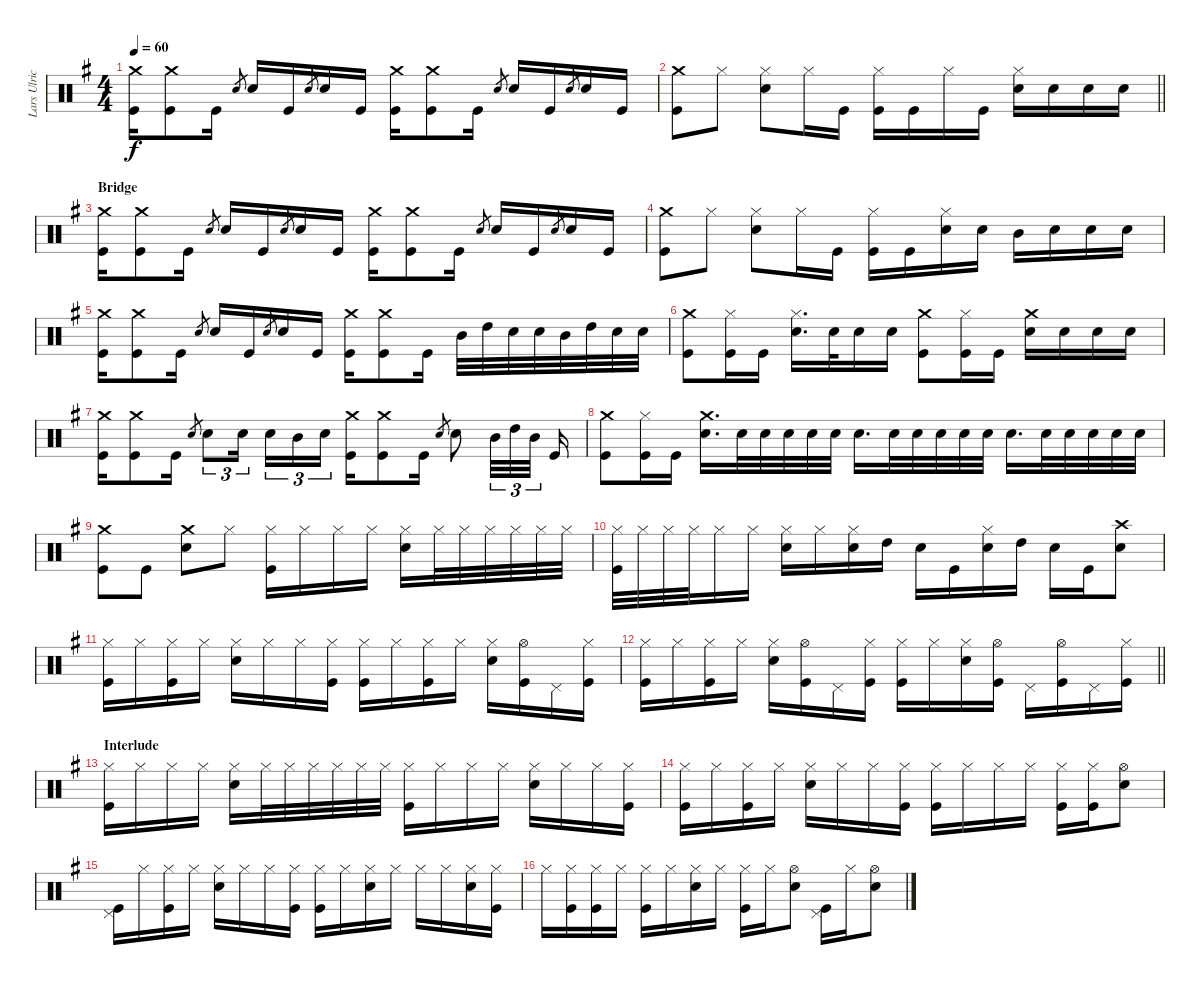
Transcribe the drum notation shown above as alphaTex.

\track ("Lars Ulrich [Drums]" "Lars Ulric") {instrument percussion}
\staff {score}
\articulation defaults
\ts (4 4)
\tempo 60
\clef neutral
\ks g
("Kick (hit)" "Crash medium (hit)").16{dy f} ("Kick (hit)" "Crash medium (hit)").8 "Kick (hit)".16 "Electric Snare (hit)".8{gr} "Electric Snare (hit)".16 "Kick (hit)".16 "Electric Snare (hit)".8{gr} "Electric Snare (hit)".16 "Kick (hit)".16 ("Kick (hit)" "Crash medium (hit)").16 ("Kick (hit)" "Crash medium (hit)").8 "Kick (hit)".16 "Electric Snare (hit)".8{gr} "Electric Snare (hit)".16 "Kick (hit)".16 "Electric Snare (hit)".8{gr} "Electric Snare (hit)".16 "Kick (hit)".16 |
\barLineRight lightlight
("Kick (hit)" "Crash medium (hit)").8 "Hi-Hat (closed)".8 ("Electric Snare (hit)" "Hi-Hat (closed)").8 "Hi-Hat (closed)".16 "Kick (hit)".16 ("Kick (hit)" "Hi-Hat (closed)").16 "Kick (hit)".16 "Hi-Hat (closed)".16 "Kick (hit)".16 ("Electric Snare (hit)" "Hi-Hat (closed)").16 "Electric Snare (hit)".16 "Electric Snare (hit)".16 "Electric Snare (hit)".16 |
\section ("" "Bridge")
("Kick (hit)" "Crash medium (hit)").16 ("Kick (hit)" "Crash medium (hit)").8 "Kick (hit)".16 "Electric Snare (hit)".8{gr} "Electric Snare (hit)".16 "Kick (hit)".16 "Electric Snare (hit)".8{gr} "Electric Snare (hit)".16 "Kick (hit)".16 ("Kick (hit)" "Crash medium (hit)").16 ("Kick (hit)" "Crash medium (hit)").8 "Kick (hit)".16 "Electric Snare (hit)".8{gr} "Electric Snare (hit)".16 "Kick (hit)".16 "Electric Snare (hit)".8{gr} "Electric Snare (hit)".16 "Kick (hit)".16 |
("Kick (hit)" "Crash medium (hit)").8 "Hi-Hat (closed)".8 ("Electric Snare (hit)" "Hi-Hat (closed)").8 "Hi-Hat (closed)".16 "Kick (hit)".16 ("Kick (hit)" "Hi-Hat (closed)").16 "Kick (hit)".16 ("Electric Snare (hit)" "Hi-Hat (closed)").16 "Electric Snare (hit)".16 "Mid Tom (hit)".16 "Electric Snare (hit)".16 "Electric Snare (hit)".16 "Electric Snare (hit)".16 |
("Kick (hit)" "Crash medium (hit)").16 ("Kick (hit)" "Crash medium (hit)").8 "Kick (hit)".16 "Electric Snare (hit)".8{gr} "Electric Snare (hit)".16 "Kick (hit)".16 "Electric Snare (hit)".8{gr} "Electric Snare (hit)".16 "Kick (hit)".16 ("Kick (hit)" "Crash medium (hit)").16 ("Kick (hit)" "Crash medium (hit)").8 "Kick (hit)".16 "Mid Tom (hit)".32 "High Tom (hit)".32 "Electric Snare (hit)".32 "Electric Snare (hit)".32 "Mid Tom (hit)".32 "High Tom (hit)".32 "Electric Snare (hit)".32 "Electric Snare (hit)".32 |
("Kick (hit)" "Crash medium (hit)").8 ("Kick (hit)" "Hi-Hat (closed)").16 "Kick (hit)".16 ("Electric Snare (hit)" "Hi-Hat (closed)").16{d} "Electric Snare (hit)".32 "Electric Snare (hit)".16 "Electric Snare (hit)".16 ("Kick (hit)" "Crash medium (hit)").8 ("Kick (hit)" "Hi-Hat (closed)").16 "Kick (hit)".16 ("Electric Snare (hit)" "Crash medium (hit)").16 "Electric Snare (hit)".16 "Electric Snare (hit)".16 "Electric Snare (hit)".16 |
("Kick (hit)" "Crash medium (hit)").16 ("Kick (hit)" "Crash medium (hit)").8 "Kick (hit)".16 "Electric Snare (hit)".8{gr} "Electric Snare (hit)".8{tu (3 2)} "Electric Snare (hit)".16{tu (3 2) beam splitsecondary} "Electric Snare (hit)".16{tu (3 2)} "Mid Tom (hit)".16{tu (3 2)} "Electric Snare (hit)".16{tu (3 2)} ("Kick (hit)" "Crash medium (hit)").16 ("Kick (hit)" "Crash medium (hit)").8 "Kick (hit)".16 "Electric Snare (hit)".8{gr} "Electric Snare (hit)".8 "Mid Tom (hit)".32{tu (3 2)} "High Tom (hit)".32{tu (3 2)} "Mid Tom (hit)".32{tu (3 2) beam splitsecondary} "Kick (hit)".16 |
("Kick (hit)" "Crash medium (hit)").8 ("Kick (hit)" "Hi-Hat (closed)").16 "Kick (hit)".16 ("Electric Snare (hit)" "Crash medium (hit)").16{d} "Electric Snare (hit)".32 "Electric Snare (hit)".32 "Electric Snare (hit)".32 "Electric Snare (hit)".32 "Electric Snare (hit)".32 "Electric Snare (hit)".16{d} "Electric Snare (hit)".32 "Electric Snare (hit)".32 "Electric Snare (hit)".32 "Electric Snare (hit)".32 "Electric Snare (hit)".32 "Electric Snare (hit)".16{d} "Electric Snare (hit)".32 "Electric Snare (hit)".32 "Electric Snare (hit)".32 "Electric Snare (hit)".32 "Electric Snare (hit)".32 |
("Kick (hit)" "Crash medium (hit)").8 "Kick (hit)".8 ("Electric Snare (hit)" "Crash medium (hit)").8 "Hi-Hat (closed)".8 ("Kick (hit)" "Hi-Hat (closed)").16 "Hi-Hat (closed)".16 "Hi-Hat (closed)".16 "Hi-Hat (closed)".16 ("Electric Snare (hit)" "Hi-Hat (closed)").16 "Hi-Hat (closed)".32 "Hi-Hat (closed)".32 "Hi-Hat (closed)".32 "Hi-Hat (closed)".32 "Hi-Hat (closed)".32 "Hi-Hat (closed)".32 |
("Kick (hit)" "Hi-Hat (closed)").32 "Hi-Hat (closed)".32 "Hi-Hat (closed)".32 "Hi-Hat (closed)".32 "Hi-Hat (closed)".16 "Hi-Hat (closed)".16 ("Electric Snare (hit)" "Hi-Hat (closed)").16 "Hi-Hat (closed)".16 ("Electric Snare (hit)" "Hi-Hat (closed)").16 "High Tom (hit)".16 "Electric Snare (hit)".16 "Kick (hit)".16 ("Electric Snare (hit)" "Hi-Hat (closed)").16 "High Tom (hit)".16 "Electric Snare (hit)".16 "Kick (hit)".16 ("Electric Snare (hit)" "Crash high (hit)").8 |
("Kick (hit)" "Hi-Hat (closed)").16 "Hi-Hat (closed)".16 ("Kick (hit)" "Hi-Hat (closed)").16 "Hi-Hat (closed)".16 ("Electric Snare (hit)" "Hi-Hat (closed)").16 "Hi-Hat (closed)".16 "Hi-Hat (closed)".16 ("Kick (hit)" "Hi-Hat (closed)").16 ("Kick (hit)" "Hi-Hat (closed)").16 "Hi-Hat (closed)".16 ("Kick (hit)" "Hi-Hat (closed)").16 "Hi-Hat (closed)".16 ("Electric Snare (hit)" "Hi-Hat (closed)").16 ("Kick (hit)" "Hi-Hat (open)").16 "Pedal Hi-Hat (hit)".16 ("Kick (hit)" "Hi-Hat (closed)").16 |
\barLineRight lightlight
("Kick (hit)" "Hi-Hat (closed)").16 "Hi-Hat (closed)".16 ("Kick (hit)" "Hi-Hat (closed)").16 "Hi-Hat (closed)".16 ("Electric Snare (hit)" "Hi-Hat (closed)").16 ("Kick (hit)" "Hi-Hat (open)").16 "Pedal Hi-Hat (hit)".16 ("Kick (hit)" "Hi-Hat (closed)").16 ("Kick (hit)" "Hi-Hat (closed)").16 "Hi-Hat (closed)".16 ("Electric Snare (hit)" "Hi-Hat (closed)").16 ("Kick (hit)" "Hi-Hat (open)").16 "Pedal Hi-Hat (hit)".16 ("Kick (hit)" "Hi-Hat (open)").16 "Pedal Hi-Hat (hit)".16 ("Kick (hit)" "Hi-Hat (closed)").16 |
\section ("" "Interlude")
("Kick (hit)" "Hi-Hat (closed)").16 "Hi-Hat (closed)".16 "Hi-Hat (closed)".16 "Hi-Hat (closed)".16 ("Electric Snare (hit)" "Hi-Hat (closed)").16 "Hi-Hat (closed)".32 "Hi-Hat (closed)".32 "Hi-Hat (closed)".32 "Hi-Hat (closed)".32 "Hi-Hat (closed)".32 "Hi-Hat (closed)".32 ("Kick (hit)" "Hi-Hat (closed)").16 "Hi-Hat (closed)".16 "Hi-Hat (closed)".16 "Hi-Hat (closed)".16 ("Electric Snare (hit)" "Hi-Hat (closed)").16 "Hi-Hat (closed)".16 "Hi-Hat (closed)".16 ("Kick (hit)" "Hi-Hat (closed)").16 |
("Kick (hit)" "Hi-Hat (closed)").16 "Hi-Hat (closed)".16 ("Kick (hit)" "Hi-Hat (closed)").16 "Hi-Hat (closed)".16 ("Electric Snare (hit)" "Hi-Hat (closed)").16 "Hi-Hat (closed)".16 "Hi-Hat (closed)".16 ("Kick (hit)" "Hi-Hat (closed)").16 ("Kick (hit)" "Hi-Hat (closed)").16 "Hi-Hat (closed)".16 "Hi-Hat (closed)".16 "Hi-Hat (closed)".16 ("Kick (hit)" "Hi-Hat (closed)").16 ("Kick (hit)" "Hi-Hat (closed)").16 ("Electric Snare (hit)" "Hi-Hat (open)").8 |
("Kick (hit)" "Pedal Hi-Hat (hit)").16 "Hi-Hat (closed)".16 ("Kick (hit)" "Hi-Hat (closed)").16 "Hi-Hat (closed)".16 ("Electric Snare (hit)" "Hi-Hat (closed)").16 "Hi-Hat (closed)".16 "Hi-Hat (closed)".16 ("Kick (hit)" "Hi-Hat (closed)").16 ("Kick (hit)" "Hi-Hat (closed)").16 "Hi-Hat (closed)".16 ("Electric Snare (hit)" "Hi-Hat (closed)").16 "Hi-Hat (closed)".16 "Hi-Hat (closed)".16 "Hi-Hat (closed)".16 ("Electric Snare (hit)" "Hi-Hat (closed)").16 ("Kick (hit)" "Hi-Hat (closed)").16 |
"Hi-Hat (closed)".16 ("Kick (hit)" "Hi-Hat (closed)").16 ("Kick (hit)" "Hi-Hat (closed)").16 "Hi-Hat (closed)".16 ("Kick (hit)" "Hi-Hat (closed)").16 "Hi-Hat (closed)".16 ("Electric Snare (hit)" "Hi-Hat (closed)").16 "Hi-Hat (closed)".16 ("Kick (hit)" "Hi-Hat (closed)").16 "Hi-Hat (closed)".16 ("Electric Snare (hit)" "Hi-Hat (open)").8 ("Kick (hit)" "Pedal Hi-Hat (hit)").16 "Hi-Hat (closed)".16 ("Electric Snare (hit)" "Hi-Hat (open)").8
